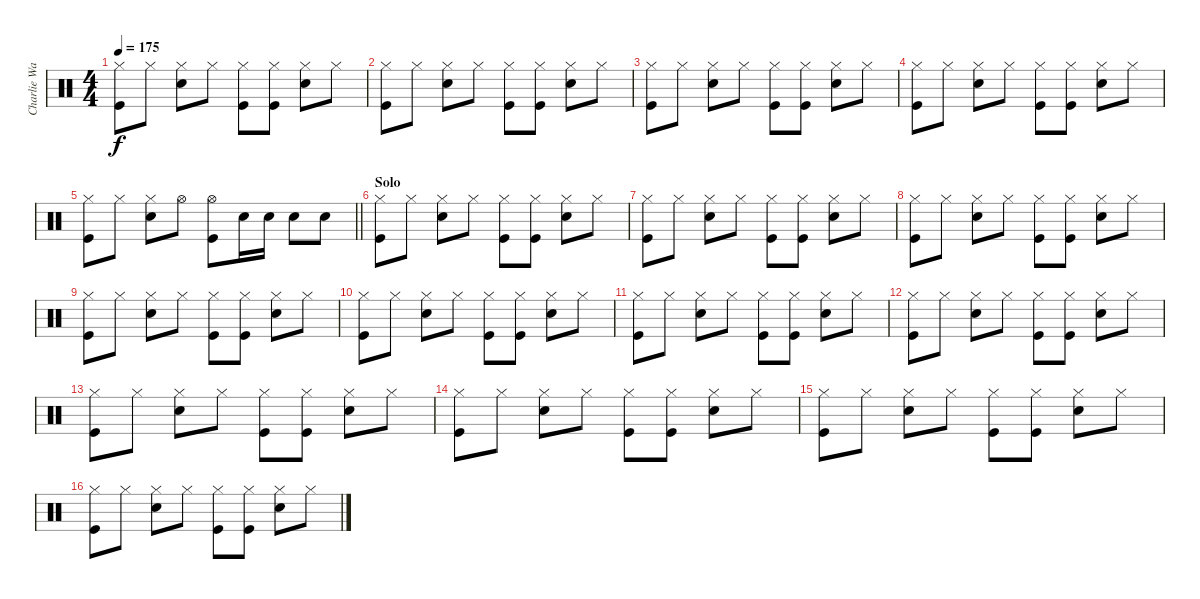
\track ("Charlie Watts" "Charlie Wa") {instrument percussion}
\staff {score}
\articulation defaults
\ts (4 4)
\tempo 175
\clef neutral
\ks c
("Hi-Hat (closed)" "Kick (hit)").8{dy f} "Hi-Hat (closed)".8 ("Hi-Hat (closed)" "Snare (hit) 2").8 "Hi-Hat (closed)".8 ("Hi-Hat (closed)" "Kick (hit)").8 ("Hi-Hat (closed)" "Kick (hit)").8 ("Hi-Hat (closed)" "Snare (hit) 2").8 "Hi-Hat (closed)".8 |
("Hi-Hat (closed)" "Kick (hit)").8 "Hi-Hat (closed)".8 ("Hi-Hat (closed)" "Snare (hit) 2").8 "Hi-Hat (closed)".8 ("Hi-Hat (closed)" "Kick (hit)").8 ("Hi-Hat (closed)" "Kick (hit)").8 ("Hi-Hat (closed)" "Snare (hit) 2").8 "Hi-Hat (closed)".8 |
("Hi-Hat (closed)" "Kick (hit)").8 "Hi-Hat (closed)".8 ("Hi-Hat (closed)" "Snare (hit) 2").8 "Hi-Hat (closed)".8 ("Hi-Hat (closed)" "Kick (hit)").8 ("Hi-Hat (closed)" "Kick (hit)").8 ("Hi-Hat (closed)" "Snare (hit) 2").8 "Hi-Hat (closed)".8 |
("Hi-Hat (closed)" "Kick (hit)").8 "Hi-Hat (closed)".8 ("Hi-Hat (closed)" "Snare (hit) 2").8 "Hi-Hat (closed)".8 ("Hi-Hat (closed)" "Kick (hit)").8 ("Hi-Hat (closed)" "Kick (hit)").8 ("Hi-Hat (closed)" "Snare (hit) 2").8 "Hi-Hat (closed)".8 |
\barLineRight lightlight
("Hi-Hat (closed)" "Kick (hit)").8 "Hi-Hat (closed)".8 ("Hi-Hat (closed)" "Snare (hit) 2").8 "Hi-Hat (open)".8 ("Hi-Hat (open)" "Kick (hit)").8 "Snare (hit) 2".16 "Snare (hit) 2".16 "Snare (hit) 2".8 "Snare (hit) 2".8 |
\section ("" "Solo")
("Hi-Hat (closed)" "Kick (hit)").8 "Hi-Hat (closed)".8 ("Hi-Hat (closed)" "Snare (hit) 2").8 "Hi-Hat (closed)".8 ("Hi-Hat (closed)" "Kick (hit)").8 ("Hi-Hat (closed)" "Kick (hit)").8 ("Hi-Hat (closed)" "Snare (hit) 2").8 "Hi-Hat (closed)".8 |
("Hi-Hat (closed)" "Kick (hit)").8 "Hi-Hat (closed)".8 ("Hi-Hat (closed)" "Snare (hit) 2").8 "Hi-Hat (closed)".8 ("Hi-Hat (closed)" "Kick (hit)").8 ("Hi-Hat (closed)" "Kick (hit)").8 ("Hi-Hat (closed)" "Snare (hit) 2").8 "Hi-Hat (closed)".8 |
("Hi-Hat (closed)" "Kick (hit)").8 "Hi-Hat (closed)".8 ("Hi-Hat (closed)" "Snare (hit) 2").8 "Hi-Hat (closed)".8 ("Hi-Hat (closed)" "Kick (hit)").8 ("Hi-Hat (closed)" "Kick (hit)").8 ("Hi-Hat (closed)" "Snare (hit) 2").8 "Hi-Hat (closed)".8 |
("Hi-Hat (closed)" "Kick (hit)").8 "Hi-Hat (closed)".8 ("Hi-Hat (closed)" "Snare (hit) 2").8 "Hi-Hat (closed)".8 ("Hi-Hat (closed)" "Kick (hit)").8 ("Hi-Hat (closed)" "Kick (hit)").8 ("Hi-Hat (closed)" "Snare (hit) 2").8 "Hi-Hat (closed)".8 |
("Hi-Hat (closed)" "Kick (hit)").8 "Hi-Hat (closed)".8 ("Hi-Hat (closed)" "Snare (hit) 2").8 "Hi-Hat (closed)".8 ("Hi-Hat (closed)" "Kick (hit)").8 ("Hi-Hat (closed)" "Kick (hit)").8 ("Hi-Hat (closed)" "Snare (hit) 2").8 "Hi-Hat (closed)".8 |
("Hi-Hat (closed)" "Kick (hit)").8 "Hi-Hat (closed)".8 ("Hi-Hat (closed)" "Snare (hit) 2").8 "Hi-Hat (closed)".8 ("Hi-Hat (closed)" "Kick (hit)").8 ("Hi-Hat (closed)" "Kick (hit)").8 ("Hi-Hat (closed)" "Snare (hit) 2").8 "Hi-Hat (closed)".8 |
("Hi-Hat (closed)" "Kick (hit)").8 "Hi-Hat (closed)".8 ("Hi-Hat (closed)" "Snare (hit) 2").8 "Hi-Hat (closed)".8 ("Hi-Hat (closed)" "Kick (hit)").8 ("Hi-Hat (closed)" "Kick (hit)").8 ("Hi-Hat (closed)" "Snare (hit) 2").8 "Hi-Hat (closed)".8 |
("Hi-Hat (closed)" "Kick (hit)").8 "Hi-Hat (closed)".8 ("Hi-Hat (closed)" "Snare (hit) 2").8 "Hi-Hat (closed)".8 ("Hi-Hat (closed)" "Kick (hit)").8 ("Hi-Hat (closed)" "Kick (hit)").8 ("Hi-Hat (closed)" "Snare (hit) 2").8 "Hi-Hat (closed)".8 |
("Hi-Hat (closed)" "Kick (hit)").8 "Hi-Hat (closed)".8 ("Hi-Hat (closed)" "Snare (hit) 2").8 "Hi-Hat (closed)".8 ("Hi-Hat (closed)" "Kick (hit)").8 ("Hi-Hat (closed)" "Kick (hit)").8 ("Hi-Hat (closed)" "Snare (hit) 2").8 "Hi-Hat (closed)".8 |
("Hi-Hat (closed)" "Kick (hit)").8 "Hi-Hat (closed)".8 ("Hi-Hat (closed)" "Snare (hit) 2").8 "Hi-Hat (closed)".8 ("Hi-Hat (closed)" "Kick (hit)").8 ("Hi-Hat (closed)" "Kick (hit)").8 ("Hi-Hat (closed)" "Snare (hit) 2").8 "Hi-Hat (closed)".8 |
("Hi-Hat (closed)" "Kick (hit)").8 "Hi-Hat (closed)".8 ("Hi-Hat (closed)" "Snare (hit) 2").8 "Hi-Hat (closed)".8 ("Hi-Hat (closed)" "Kick (hit)").8 ("Hi-Hat (closed)" "Kick (hit)").8 ("Hi-Hat (closed)" "Snare (hit) 2").8 "Hi-Hat (closed)".8
